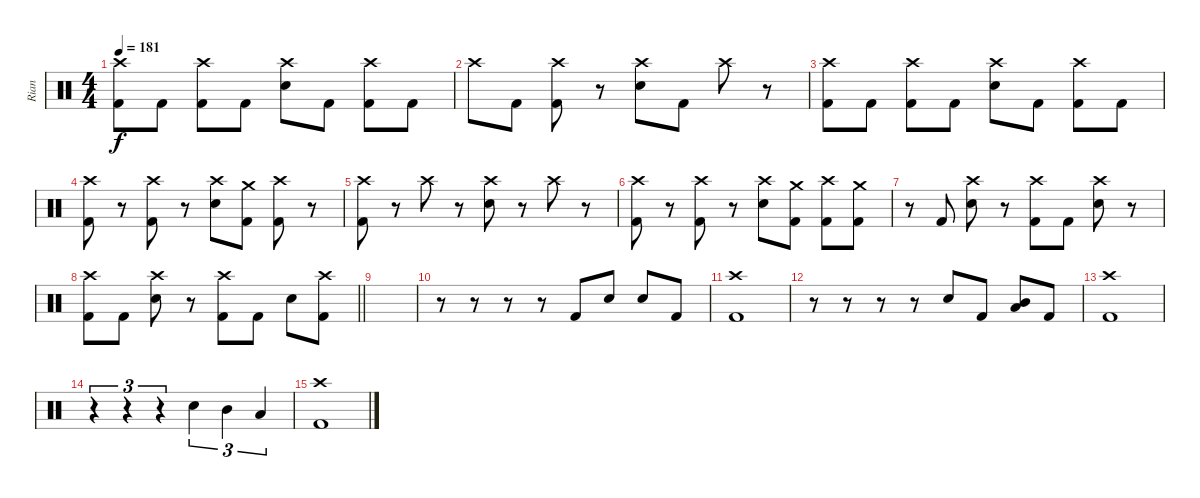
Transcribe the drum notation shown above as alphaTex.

\track ("Rian" "Rian") {instrument percussion bank 255}
\staff {score}
\articulation defaults
\ts (4 4)
\tempo 181
\clef neutral
\ks c
("Crash high (hit)" "Kick (hit) 2").8{dy f} "Kick (hit) 2".8 ("Crash high (hit)" "Kick (hit) 2").8 "Kick (hit) 2".8 ("Crash high (hit)" "Electric Snare (hit)").8 "Kick (hit) 2".8 ("Crash high (hit)" "Kick (hit) 2").8 "Kick (hit) 2".8 |
"Crash high (hit)".8 "Kick (hit) 2".8 ("Crash high (hit)" "Kick (hit) 2").8 r.8 ("Crash high (hit)" "Electric Snare (hit)").8 "Kick (hit) 2".8 "Crash high (hit)".8 r.8 |
("Crash high (hit)" "Kick (hit) 2").8 "Kick (hit) 2".8 ("Crash high (hit)" "Kick (hit) 2").8 "Kick (hit) 2".8 ("Crash high (hit)" "Electric Snare (hit)").8 "Kick (hit) 2".8 ("Crash high (hit)" "Kick (hit) 2").8 "Kick (hit) 2".8 |
("Crash high (hit)" "Kick (hit) 2").8 r.8 ("Crash high (hit)" "Kick (hit) 2").8 r.8 ("Crash high (hit)" "Electric Snare (hit)").8 ("Crash medium (hit)" "Kick (hit) 2").8 ("Crash high (hit)" "Kick (hit) 2").8 r.8 |
("Crash high (hit)" "Kick (hit) 2").8 r.8 "Crash high (hit)".8 r.8 ("Crash high (hit)" "Electric Snare (hit)").8 r.8 "Crash high (hit)".8 r.8 |
("Crash high (hit)" "Kick (hit) 2").8 r.8 ("Crash high (hit)" "Kick (hit) 2").8 r.8 ("Crash high (hit)" "Electric Snare (hit)").8 ("Crash medium (hit)" "Kick (hit) 2").8 ("Crash high (hit)" "Kick (hit) 2").8 ("Crash medium (hit)" "Kick (hit) 2").8 |
r.8 "Kick (hit) 2".8 ("Crash high (hit)" "Electric Snare (hit)").8 r.8 ("Crash high (hit)" "Kick (hit) 2").8 "Kick (hit) 2".8 ("Crash high (hit)" "Electric Snare (hit)").8 r.8 |
\barLineRight lightlight
("Crash high (hit)" "Kick (hit) 2").8 "Kick (hit) 2".8 ("Crash high (hit)" "Electric Snare (hit)").8 r.8 ("Crash high (hit)" "Kick (hit) 2").8 "Kick (hit) 2".8 "Electric Snare (hit)".8 ("Crash high (hit)" "Kick (hit) 2").8 |
|
r.8 r.8 r.8 r.8 "Kick (hit) 2".8 "Electric Snare (hit)".8 "Electric Snare (hit)".8 "Kick (hit) 2".8 |
("Crash high (hit)" "Kick (hit) 2").1 |
r.8 r.8 r.8 r.8 "Electric Snare (hit)".8 "Kick (hit) 2".8 ("Mid Tom (hit)" "Low Tom (hit)").8 "Kick (hit) 2".8 |
("Crash high (hit)" "Kick (hit) 2").1 |
r.4{tu (3 2)} r.4{tu (3 2)} r.4{tu (3 2)} "Electric Snare (hit)".4{tu (3 2)} "Mid Tom (hit)".4{tu (3 2)} "Low Tom (hit)".4{tu (3 2)} |
("Crash high (hit)" "Kick (hit) 2").1
